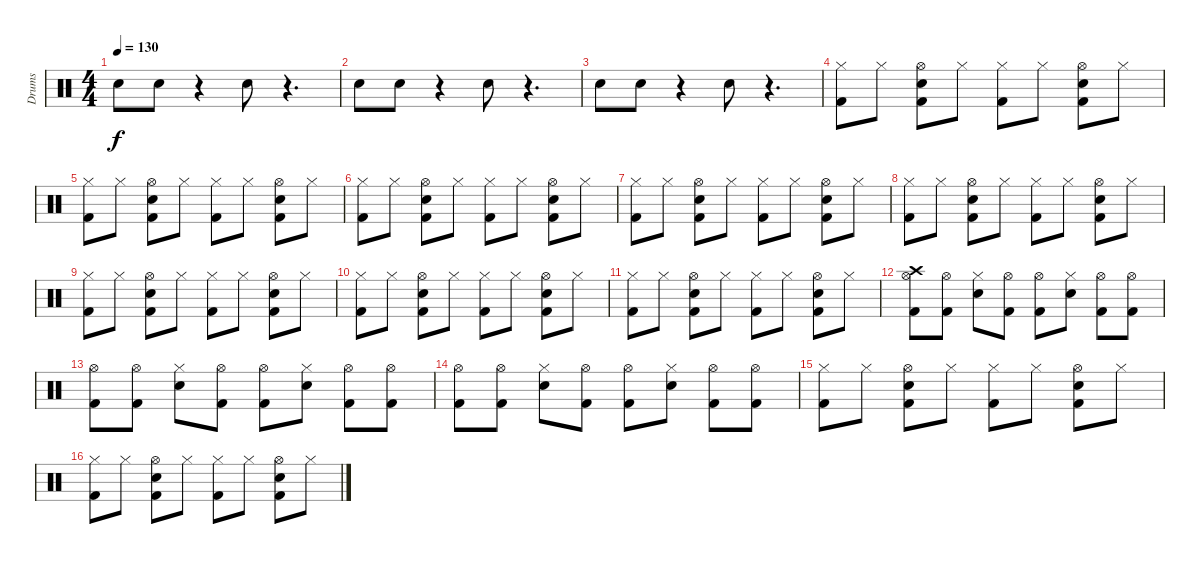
\track ("Drums" "Drums") {instrument percussion}
\staff {score}
\articulation defaults
\ts (4 4)
\tempo 130
\clef neutral
\ks c "Electric Snare (hit)".8{dy f} "Electric Snare (hit)".8
r.4 "Electric Snare (hit)".8 r.4{d} |
"Electric Snare (hit)".8 "Electric Snare (hit)".8 r.4 "Electric Snare (hit)".8 r.4{d} |
"Electric Snare (hit)".8 "Electric Snare (hit)".8 r.4 "Electric Snare (hit)".8 r.4{d} |
("Hi-Hat (closed)" "Kick (hit) 2").8 "Hi-Hat (closed)".8 ("Hi-Hat (open)" "Electric Snare (hit)" "Kick (hit) 2").8 "Hi-Hat (closed)".8 ("Hi-Hat (closed)" "Kick (hit) 2").8 "Hi-Hat (closed)".8 ("Hi-Hat (open)" "Electric Snare (hit)" "Kick (hit) 2").8 "Hi-Hat (closed)".8 |
("Hi-Hat (closed)" "Kick (hit) 2").8 "Hi-Hat (closed)".8 ("Hi-Hat (open)" "Electric Snare (hit)" "Kick (hit) 2").8 "Hi-Hat (closed)".8 ("Hi-Hat (closed)" "Kick (hit) 2").8 "Hi-Hat (closed)".8 ("Hi-Hat (open)" "Electric Snare (hit)" "Kick (hit) 2").8 "Hi-Hat (closed)".8 |
("Hi-Hat (closed)" "Kick (hit) 2").8 "Hi-Hat (closed)".8 ("Hi-Hat (open)" "Electric Snare (hit)" "Kick (hit) 2").8 "Hi-Hat (closed)".8 ("Hi-Hat (closed)" "Kick (hit) 2").8 "Hi-Hat (closed)".8 ("Hi-Hat (open)" "Electric Snare (hit)" "Kick (hit) 2").8 "Hi-Hat (closed)".8 |
("Hi-Hat (closed)" "Kick (hit) 2").8 "Hi-Hat (closed)".8 ("Hi-Hat (open)" "Electric Snare (hit)" "Kick (hit) 2").8 "Hi-Hat (closed)".8 ("Hi-Hat (closed)" "Kick (hit) 2").8 "Hi-Hat (closed)".8 ("Hi-Hat (open)" "Electric Snare (hit)" "Kick (hit) 2").8 "Hi-Hat (closed)".8 |
("Hi-Hat (closed)" "Kick (hit) 2").8 "Hi-Hat (closed)".8 ("Hi-Hat (open)" "Electric Snare (hit)" "Kick (hit) 2").8 "Hi-Hat (closed)".8 ("Hi-Hat (closed)" "Kick (hit) 2").8 "Hi-Hat (closed)".8 ("Hi-Hat (open)" "Electric Snare (hit)" "Kick (hit) 2").8 "Hi-Hat (closed)".8 |
("Hi-Hat (closed)" "Kick (hit) 2").8 "Hi-Hat (closed)".8 ("Hi-Hat (open)" "Electric Snare (hit)" "Kick (hit) 2").8 "Hi-Hat (closed)".8 ("Hi-Hat (closed)" "Kick (hit) 2").8 "Hi-Hat (closed)".8 ("Hi-Hat (open)" "Electric Snare (hit)" "Kick (hit) 2").8 "Hi-Hat (closed)".8 |
("Hi-Hat (closed)" "Kick (hit) 2").8 "Hi-Hat (closed)".8 ("Hi-Hat (open)" "Electric Snare (hit)" "Kick (hit) 2").8 "Hi-Hat (closed)".8 ("Hi-Hat (closed)" "Kick (hit) 2").8 "Hi-Hat (closed)".8 ("Hi-Hat (open)" "Electric Snare (hit)" "Kick (hit) 2").8 "Hi-Hat (closed)".8 |
("Hi-Hat (closed)" "Kick (hit) 2").8 "Hi-Hat (closed)".8 ("Hi-Hat (open)" "Electric Snare (hit)" "Kick (hit) 2").8 "Hi-Hat (closed)".8 ("Hi-Hat (closed)" "Kick (hit) 2").8 "Hi-Hat (closed)".8 ("Hi-Hat (open)" "Electric Snare (hit)" "Kick (hit) 2").8 "Hi-Hat (closed)".8 |
("Crash high (hit)" "Hi-Hat (open)" "Kick (hit) 2").8 ("Hi-Hat (open)" "Kick (hit) 2").8 ("Hi-Hat (closed)" "Electric Snare (hit)").8 ("Hi-Hat (open)" "Kick (hit) 2").8 ("Hi-Hat (open)" "Kick (hit) 2").8 ("Hi-Hat (closed)" "Electric Snare (hit)").8 ("Hi-Hat (open)" "Kick (hit) 2").8 ("Hi-Hat (open)" "Kick (hit) 2").8 |
("Hi-Hat (open)" "Kick (hit) 2").8 ("Hi-Hat (open)" "Kick (hit) 2").8 ("Hi-Hat (closed)" "Electric Snare (hit)").8 ("Hi-Hat (open)" "Kick (hit) 2").8 ("Hi-Hat (open)" "Kick (hit) 2").8 ("Hi-Hat (closed)" "Electric Snare (hit)").8 ("Hi-Hat (open)" "Kick (hit) 2").8 ("Hi-Hat (open)" "Kick (hit) 2").8 |
("Hi-Hat (open)" "Kick (hit) 2").8 ("Hi-Hat (open)" "Kick (hit) 2").8 ("Hi-Hat (closed)" "Electric Snare (hit)").8 ("Hi-Hat (open)" "Kick (hit) 2").8 ("Hi-Hat (open)" "Kick (hit) 2").8 ("Hi-Hat (closed)" "Electric Snare (hit)").8 ("Hi-Hat (open)" "Kick (hit) 2").8 ("Hi-Hat (open)" "Kick (hit) 2").8 |
("Hi-Hat (closed)" "Kick (hit) 2").8 "Hi-Hat (closed)".8 ("Hi-Hat (open)" "Electric Snare (hit)" "Kick (hit) 2").8 "Hi-Hat (closed)".8 ("Hi-Hat (closed)" "Kick (hit) 2").8 "Hi-Hat (closed)".8 ("Hi-Hat (open)" "Electric Snare (hit)" "Kick (hit) 2").8 "Hi-Hat (closed)".8 |
("Hi-Hat (closed)" "Kick (hit) 2").8 "Hi-Hat (closed)".8 ("Hi-Hat (open)" "Electric Snare (hit)" "Kick (hit) 2").8 "Hi-Hat (closed)".8 ("Hi-Hat (closed)" "Kick (hit) 2").8 "Hi-Hat (closed)".8 ("Hi-Hat (open)" "Electric Snare (hit)" "Kick (hit) 2").8 "Hi-Hat (closed)".8
